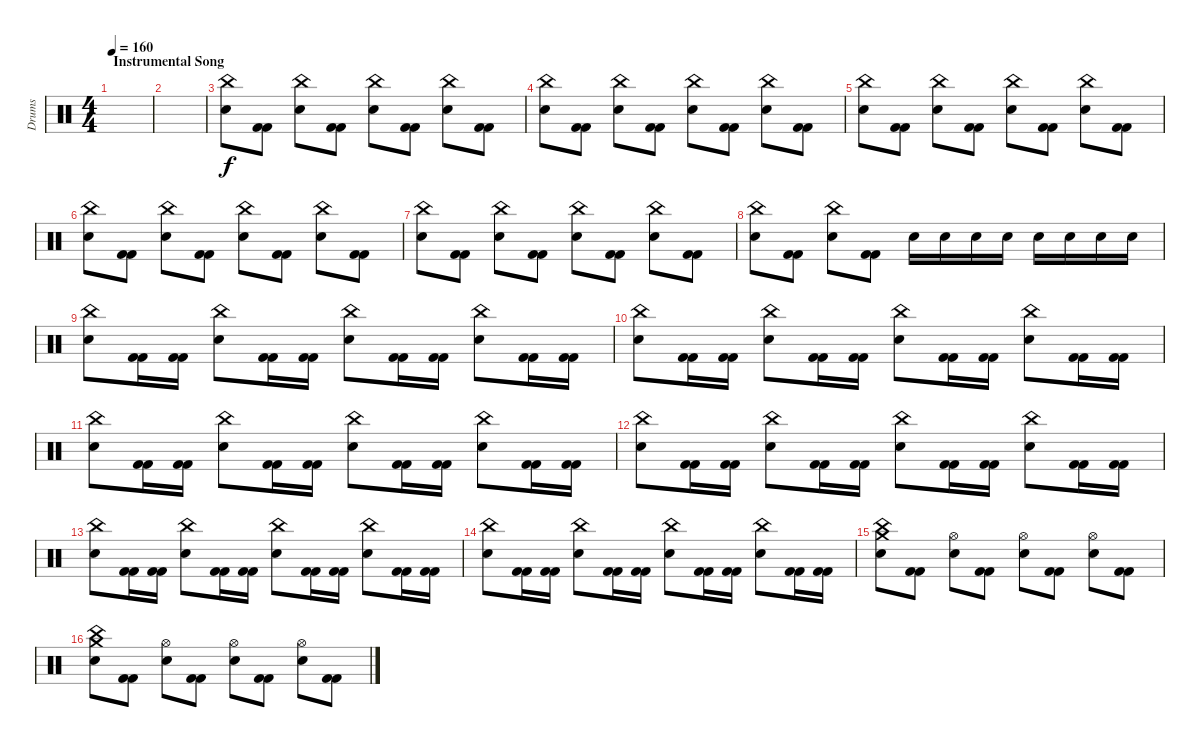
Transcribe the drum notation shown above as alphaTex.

\track ("Drums" "Drums") {instrument percussion}
\staff {score}
\articulation defaults
\ts (4 4)
\section ("" "Instrumental Song")
\tempo 160
\clef neutral
\ks c
|
|
("Electric Snare (hit)" "China (hit)").8 ("Kick (hit) 2" "Kick (hit) 2").8 ("Electric Snare (hit)" "China (hit)").8 ("Kick (hit) 2" "Kick (hit) 2").8 ("Electric Snare (hit)" "China (hit)").8 ("Kick (hit) 2" "Kick (hit) 2").8 ("Electric Snare (hit)" "China (hit)").8 ("Kick (hit) 2" "Kick (hit) 2").8 |
("Electric Snare (hit)" "China (hit)").8 ("Kick (hit) 2" "Kick (hit) 2").8 ("Electric Snare (hit)" "China (hit)").8 ("Kick (hit) 2" "Kick (hit) 2").8 ("Electric Snare (hit)" "China (hit)").8 ("Kick (hit) 2" "Kick (hit) 2").8 ("Electric Snare (hit)" "China (hit)").8 ("Kick (hit) 2" "Kick (hit) 2").8 |
("Electric Snare (hit)" "China (hit)").8 ("Kick (hit) 2" "Kick (hit) 2").8 ("Electric Snare (hit)" "China (hit)").8 ("Kick (hit) 2" "Kick (hit) 2").8 ("Electric Snare (hit)" "China (hit)").8 ("Kick (hit) 2" "Kick (hit) 2").8 ("Electric Snare (hit)" "China (hit)").8 ("Kick (hit) 2" "Kick (hit) 2").8 |
("Electric Snare (hit)" "China (hit)").8 ("Kick (hit) 2" "Kick (hit) 2").8 ("Electric Snare (hit)" "China (hit)").8 ("Kick (hit) 2" "Kick (hit) 2").8 ("Electric Snare (hit)" "China (hit)").8 ("Kick (hit) 2" "Kick (hit) 2").8 ("Electric Snare (hit)" "China (hit)").8 ("Kick (hit) 2" "Kick (hit) 2").8 |
("Electric Snare (hit)" "China (hit)").8 ("Kick (hit) 2" "Kick (hit) 2").8 ("Electric Snare (hit)" "China (hit)").8 ("Kick (hit) 2" "Kick (hit) 2").8 ("Electric Snare (hit)" "China (hit)").8 ("Kick (hit) 2" "Kick (hit) 2").8 ("Electric Snare (hit)" "China (hit)").8 ("Kick (hit) 2" "Kick (hit) 2").8 |
("Electric Snare (hit)" "China (hit)").8 ("Kick (hit) 2" "Kick (hit) 2").8 ("Electric Snare (hit)" "China (hit)").8 ("Kick (hit) 2" "Kick (hit) 2").8 "Electric Snare (hit)".16 "Electric Snare (hit)".16 "Electric Snare (hit)".16 "Electric Snare (hit)".16 "Electric Snare (hit)".16 "Electric Snare (hit)".16 "Electric Snare (hit)".16 "Electric Snare (hit)".16 |
("China (hit)" "Electric Snare (hit)").8 ("Kick (hit) 2" "Kick (hit) 2").16 ("Kick (hit) 2" "Kick (hit) 2").16 ("Electric Snare (hit)" "China (hit)").8 ("Kick (hit) 2" "Kick (hit) 2").16 ("Kick (hit) 2" "Kick (hit) 2").16 ("China (hit)" "Electric Snare (hit)").8 ("Kick (hit) 2" "Kick (hit) 2").16 ("Kick (hit) 2" "Kick (hit) 2").16 ("Electric Snare (hit)" "China (hit)").8 ("Kick (hit) 2" "Kick (hit) 2").16 ("Kick (hit) 2" "Kick (hit) 2").16 |
("China (hit)" "Electric Snare (hit)").8 ("Kick (hit) 2" "Kick (hit) 2").16 ("Kick (hit) 2" "Kick (hit) 2").16 ("Electric Snare (hit)" "China (hit)").8 ("Kick (hit) 2" "Kick (hit) 2").16 ("Kick (hit) 2" "Kick (hit) 2").16 ("China (hit)" "Electric Snare (hit)").8 ("Kick (hit) 2" "Kick (hit) 2").16 ("Kick (hit) 2" "Kick (hit) 2").16 ("Electric Snare (hit)" "China (hit)").8 ("Kick (hit) 2" "Kick (hit) 2").16 ("Kick (hit) 2" "Kick (hit) 2").16 |
("China (hit)" "Electric Snare (hit)").8 ("Kick (hit) 2" "Kick (hit) 2").16 ("Kick (hit) 2" "Kick (hit) 2").16 ("Electric Snare (hit)" "China (hit)").8 ("Kick (hit) 2" "Kick (hit) 2").16 ("Kick (hit) 2" "Kick (hit) 2").16 ("China (hit)" "Electric Snare (hit)").8 ("Kick (hit) 2" "Kick (hit) 2").16 ("Kick (hit) 2" "Kick (hit) 2").16 ("Electric Snare (hit)" "China (hit)").8 ("Kick (hit) 2" "Kick (hit) 2").16 ("Kick (hit) 2" "Kick (hit) 2").16 |
("China (hit)" "Electric Snare (hit)").8 ("Kick (hit) 2" "Kick (hit) 2").16 ("Kick (hit) 2" "Kick (hit) 2").16 ("Electric Snare (hit)" "China (hit)").8 ("Kick (hit) 2" "Kick (hit) 2").16 ("Kick (hit) 2" "Kick (hit) 2").16 ("China (hit)" "Electric Snare (hit)").8 ("Kick (hit) 2" "Kick (hit) 2").16 ("Kick (hit) 2" "Kick (hit) 2").16 ("Electric Snare (hit)" "China (hit)").8 ("Kick (hit) 2" "Kick (hit) 2").16 ("Kick (hit) 2" "Kick (hit) 2").16 |
("China (hit)" "Electric Snare (hit)").8 ("Kick (hit) 2" "Kick (hit) 2").16 ("Kick (hit) 2" "Kick (hit) 2").16 ("Electric Snare (hit)" "China (hit)").8 ("Kick (hit) 2" "Kick (hit) 2").16 ("Kick (hit) 2" "Kick (hit) 2").16 ("China (hit)" "Electric Snare (hit)").8 ("Kick (hit) 2" "Kick (hit) 2").16 ("Kick (hit) 2" "Kick (hit) 2").16 ("Electric Snare (hit)" "China (hit)").8 ("Kick (hit) 2" "Kick (hit) 2").16 ("Kick (hit) 2" "Kick (hit) 2").16 |
("China (hit)" "Electric Snare (hit)").8 ("Kick (hit) 2" "Kick (hit) 2").16 ("Kick (hit) 2" "Kick (hit) 2").16 ("Electric Snare (hit)" "China (hit)").8 ("Kick (hit) 2" "Kick (hit) 2").16 ("Kick (hit) 2" "Kick (hit) 2").16 ("China (hit)" "Electric Snare (hit)").8 ("Kick (hit) 2" "Kick (hit) 2").16 ("Kick (hit) 2" "Kick (hit) 2").16 ("Electric Snare (hit)" "China (hit)").8 ("Kick (hit) 2" "Kick (hit) 2").16 ("Kick (hit) 2" "Kick (hit) 2").16 |
("Crash medium (hit)" "China (hit)" "Electric Snare (hit)").8 ("Kick (hit) 2" "Kick (hit) 2").8 ("Hi-Hat (open)" "Electric Snare (hit)").8 ("Kick (hit) 2" "Kick (hit) 2").8 ("Hi-Hat (open)" "Electric Snare (hit)").8 ("Kick (hit) 2" "Kick (hit) 2").8 ("Hi-Hat (open)" "Electric Snare (hit)").8 ("Kick (hit) 2" "Kick (hit) 2").8 |
("Crash medium (hit)" "China (hit)" "Electric Snare (hit)").8 ("Kick (hit) 2" "Kick (hit) 2").8 ("Hi-Hat (open)" "Electric Snare (hit)").8 ("Kick (hit) 2" "Kick (hit) 2").8 ("Hi-Hat (open)" "Electric Snare (hit)").8 ("Kick (hit) 2" "Kick (hit) 2").8 ("Hi-Hat (open)" "Electric Snare (hit)").8 ("Kick (hit) 2" "Kick (hit) 2").8
